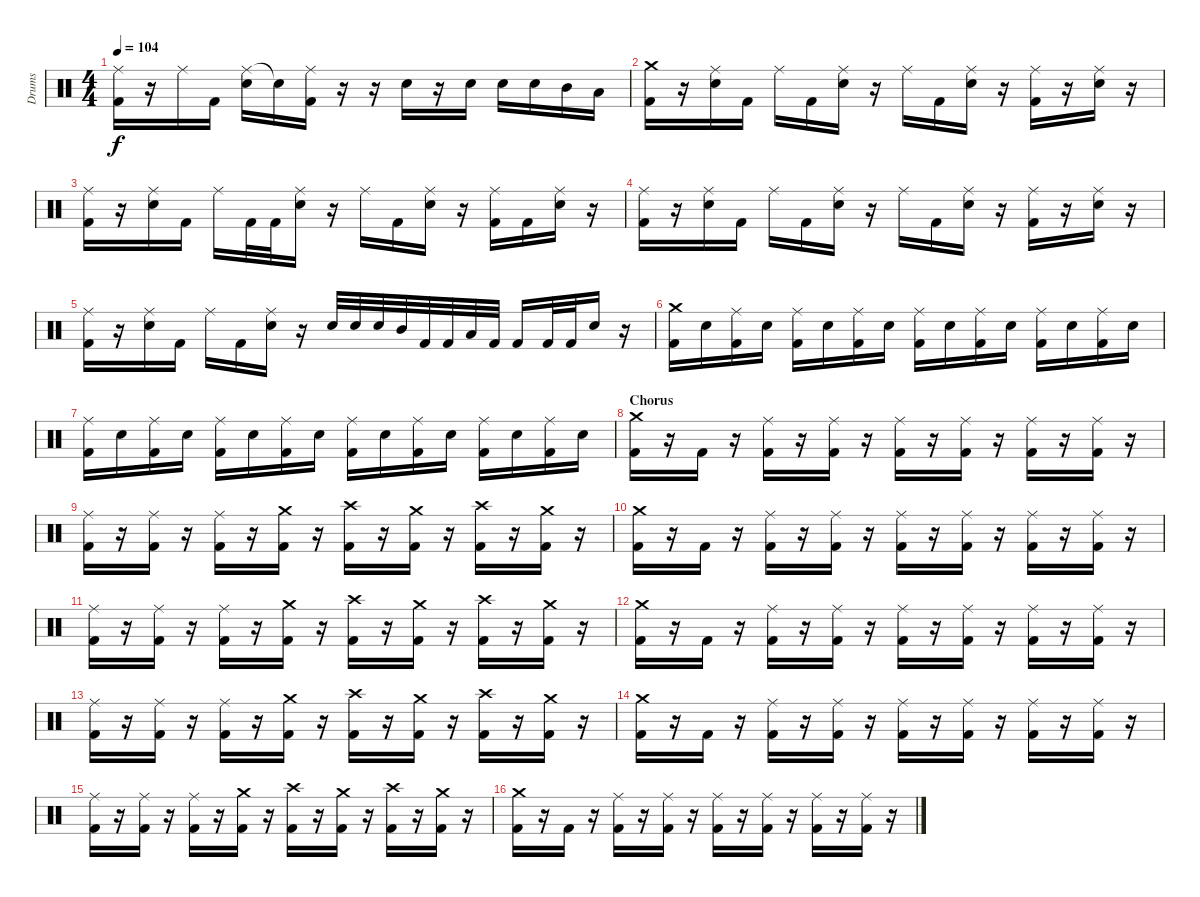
\track ("Drums" "Drums") {instrument percussion}
\staff {score}
\articulation defaults
\ts (4 4)
\tempo 104
\clef neutral
\ks c
("Ride (middle)" "Kick (hit) 2").16{dy f} r.16 "Ride (middle)".16 "Kick (hit) 2".16 ("Ride (middle)" "Electric Snare (hit)").16 "Snare (hit)"{t}.16 ("Ride (middle)" "Kick (hit) 2").16 r.16 r.16 "Electric Snare (hit)".16 r.16 "Electric Snare (hit)".16 "Electric Snare (hit)".16 "Electric Snare (hit)".16 "Mid Tom (hit)".16 "Low Tom (hit)".16 |
("Crash medium (hit)" "Kick (hit) 2").16 r.16 ("Ride (middle)" "Electric Snare (hit)").16 "Kick (hit) 2".16 "Ride (middle)".16 "Kick (hit) 2".16 ("Ride (middle)" "Electric Snare (hit)").16 r.16 "Ride (middle)".16 "Kick (hit) 2".16 ("Ride (middle)" "Electric Snare (hit)").16 r.16 ("Ride (middle)" "Kick (hit) 2").16 r.16 ("Ride (middle)" "Electric Snare (hit)").16 r.16 |
("Ride (middle)" "Kick (hit) 2").16 r.16 ("Ride (middle)" "Electric Snare (hit)").16 "Kick (hit) 2".16 "Ride (middle)".16 "Kick (hit) 2".32 "Kick (hit) 2".32 ("Ride (middle)" "Electric Snare (hit)").16 r.16 "Ride (middle)".16 "Kick (hit) 2".16 ("Ride (middle)" "Electric Snare (hit)").16 r.16 ("Ride (middle)" "Kick (hit) 2").16 "Kick (hit) 2".16 ("Ride (middle)" "Electric Snare (hit)").16 r.16 |
("Ride (middle)" "Kick (hit) 2").16 r.16 ("Ride (middle)" "Electric Snare (hit)").16 "Kick (hit) 2".16 "Ride (middle)".16 "Kick (hit) 2".16 ("Ride (middle)" "Electric Snare (hit)").16 r.16 "Ride (middle)".16 "Kick (hit) 2".16 ("Ride (middle)" "Electric Snare (hit)").16 r.16 ("Ride (middle)" "Kick (hit) 2").16 r.16 ("Ride (middle)" "Electric Snare (hit)").16 r.16 |
("Ride (middle)" "Kick (hit) 2").16 r.16 ("Ride (middle)" "Electric Snare (hit)").16 "Kick (hit) 2".16 "Ride (middle)".16 "Kick (hit) 2".16 ("Ride (middle)" "Electric Snare (hit)").16 r.16 "Electric Snare (hit)".32 "Electric Snare (hit)".32 "Electric Snare (hit)".32 "Mid Tom (hit)".32 "Kick (hit) 2".32 "Kick (hit) 2".32 "Low Tom (hit)".32 "Kick (hit) 2".32 "Kick (hit) 2".16 "Kick (hit) 2".32 "Kick (hit) 2".32 "Electric Snare (hit)".16 r.16 |
\section ("" "")
("Crash medium (hit)" "Kick (hit) 2").16 "Electric Snare (hit)".16 ("Ride (middle)" "Kick (hit) 2").16 "Electric Snare (hit)".16 ("Ride (middle)" "Kick (hit) 2").16 "Electric Snare (hit)".16 ("Ride (middle)" "Kick (hit) 2").16 "Electric Snare (hit)".16 ("Ride (middle)" "Kick (hit) 2").16 "Electric Snare (hit)".16 ("Ride (middle)" "Kick (hit) 2").16 "Electric Snare (hit)".16 ("Ride (middle)" "Kick (hit) 2").16 "Electric Snare (hit)".16 ("Ride (middle)" "Kick (hit) 2").16 "Electric Snare (hit)".16 |
("Ride (middle)" "Kick (hit) 2").16 "Electric Snare (hit)".16 ("Ride (middle)" "Kick (hit) 2").16 "Electric Snare (hit)".16 ("Ride (middle)" "Kick (hit) 2").16 "Electric Snare (hit)".16 ("Ride (middle)" "Kick (hit) 2").16 "Electric Snare (hit)".16 ("Ride (middle)" "Kick (hit) 2").16 "Electric Snare (hit)".16 ("Ride (middle)" "Kick (hit) 2").16 "Electric Snare (hit)".16 ("Ride (middle)" "Kick (hit) 2").16 "Electric Snare (hit)".16 ("Ride (middle)" "Kick (hit) 2").16 "Electric Snare (hit)".16 |
\section ("" "Chorus")
("Crash medium (hit)" "Kick (hit) 2").16 r.16 "Kick (hit) 2".16 r.16 ("Ride (middle)" "Kick (hit) 2").16 r.16 ("Ride (middle)" "Kick (hit) 2").16 r.16 ("Ride (middle)" "Kick (hit) 2").16 r.16 ("Ride (middle)" "Kick (hit) 2").16 r.16 ("Ride (middle)" "Kick (hit) 2").16 r.16 ("Ride (middle)" "Kick (hit) 2").16 r.16 |
("Ride (middle)" "Kick (hit) 2").16 r.16 ("Ride (middle)" "Kick (hit) 2").16 r.16 ("Ride (middle)" "Kick (hit) 2").16 r.16 ("Crash medium (hit)" "Kick (hit) 2").16 r.16 ("Crash high (hit)" "Kick (hit) 2").16 r.16 ("Crash medium (hit)" "Kick (hit) 2").16 r.16 ("Crash high (hit)" "Kick (hit) 2").16 r.16 ("Crash medium (hit)" "Kick (hit) 2").16 r.16 |
("Crash medium (hit)" "Kick (hit) 2").16 r.16 "Kick (hit) 2".16 r.16 ("Ride (middle)" "Kick (hit) 2").16 r.16 ("Ride (middle)" "Kick (hit) 2").16 r.16 ("Ride (middle)" "Kick (hit) 2").16 r.16 ("Ride (middle)" "Kick (hit) 2").16 r.16 ("Ride (middle)" "Kick (hit) 2").16 r.16 ("Ride (middle)" "Kick (hit) 2").16 r.16 |
("Ride (middle)" "Kick (hit) 2").16 r.16 ("Ride (middle)" "Kick (hit) 2").16 r.16 ("Ride (middle)" "Kick (hit) 2").16 r.16 ("Crash medium (hit)" "Kick (hit) 2").16 r.16 ("Crash high (hit)" "Kick (hit) 2").16 r.16 ("Crash medium (hit)" "Kick (hit) 2").16 r.16 ("Crash high (hit)" "Kick (hit) 2").16 r.16 ("Crash medium (hit)" "Kick (hit) 2").16 r.16 |
("Crash medium (hit)" "Kick (hit) 2").16 r.16 "Kick (hit) 2".16 r.16 ("Ride (middle)" "Kick (hit) 2").16 r.16 ("Ride (middle)" "Kick (hit) 2").16 r.16 ("Ride (middle)" "Kick (hit) 2").16 r.16 ("Ride (middle)" "Kick (hit) 2").16 r.16 ("Ride (middle)" "Kick (hit) 2").16 r.16 ("Ride (middle)" "Kick (hit) 2").16 r.16 |
("Ride (middle)" "Kick (hit) 2").16 r.16 ("Ride (middle)" "Kick (hit) 2").16 r.16 ("Ride (middle)" "Kick (hit) 2").16 r.16 ("Crash medium (hit)" "Kick (hit) 2").16 r.16 ("Crash high (hit)" "Kick (hit) 2").16 r.16 ("Crash medium (hit)" "Kick (hit) 2").16 r.16 ("Crash high (hit)" "Kick (hit) 2").16 r.16 ("Crash medium (hit)" "Kick (hit) 2").16 r.16 |
("Crash medium (hit)" "Kick (hit) 2").16 r.16 "Kick (hit) 2".16 r.16 ("Ride (middle)" "Kick (hit) 2").16 r.16 ("Ride (middle)" "Kick (hit) 2").16 r.16 ("Ride (middle)" "Kick (hit) 2").16 r.16 ("Ride (middle)" "Kick (hit) 2").16 r.16 ("Ride (middle)" "Kick (hit) 2").16 r.16 ("Ride (middle)" "Kick (hit) 2").16 r.16 |
("Ride (middle)" "Kick (hit) 2").16 r.16 ("Ride (middle)" "Kick (hit) 2").16 r.16 ("Ride (middle)" "Kick (hit) 2").16 r.16 ("Crash medium (hit)" "Kick (hit) 2").16 r.16 ("Crash high (hit)" "Kick (hit) 2").16 r.16 ("Crash medium (hit)" "Kick (hit) 2").16 r.16 ("Crash high (hit)" "Kick (hit) 2").16 r.16 ("Crash medium (hit)" "Kick (hit) 2").16 r.16 |
("Crash medium (hit)" "Kick (hit) 2").16 r.16 "Kick (hit) 2".16 r.16 ("Ride (middle)" "Kick (hit) 2").16 r.16 ("Ride (middle)" "Kick (hit) 2").16 r.16 ("Ride (middle)" "Kick (hit) 2").16 r.16 ("Ride (middle)" "Kick (hit) 2").16 r.16 ("Ride (middle)" "Kick (hit) 2").16 r.16 ("Ride (middle)" "Kick (hit) 2").16 r.16
